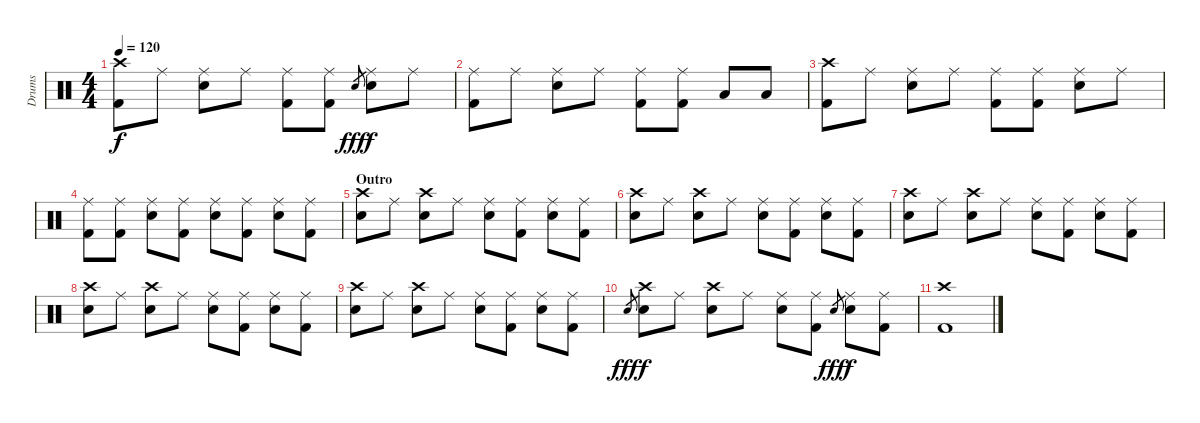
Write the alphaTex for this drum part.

\track ("Drums" "Drums") {instrument percussion}
\staff {score}
\articulation defaults
\ts (4 4)
\tempo 120
\clef neutral
\ks c
("Crash high (hit)" "Kick (hit) 2").8{dy f} "Ride (middle)".8 ("Ride (middle)" "Electric Snare (hit)").8 "Ride (middle)".8 ("Ride (middle)" "Kick (hit) 2").8 ("Ride (middle)" "Kick (hit) 2").8 "Electric Snare (hit)".8{gr dy fff} ("Ride (middle)" "Electric Snare (hit)").8{dy f} "Ride (middle)".8 |
("Ride (middle)" "Kick (hit) 2").8 "Ride (middle)".8 ("Ride (middle)" "Electric Snare (hit)").8 "Ride (middle)".8 ("Ride (middle)" "Kick (hit) 2").8 ("Ride (middle)" "Kick (hit) 2").8 "Low Floor Tom (hit)".8 "Low Floor Tom (hit)".8 |
("Crash high (hit)" "Kick (hit) 2").8 "Ride (middle)".8 ("Ride (middle)" "Electric Snare (hit)").8 "Ride (middle)".8 ("Ride (middle)" "Kick (hit) 2").8 ("Ride (middle)" "Kick (hit) 2").8 ("Ride (middle)" "Electric Snare (hit)").8 "Ride (middle)".8 |
("Ride (middle)" "Kick (hit) 2").8 ("Ride (middle)" "Kick (hit) 2").8 ("Ride (middle)" "Electric Snare (hit)").8 ("Ride (middle)" "Kick (hit) 2").8 ("Ride (middle)" "Electric Snare (hit)").8 ("Ride (middle)" "Kick (hit) 2").8 ("Ride (middle)" "Electric Snare (hit)").8 ("Ride (middle)" "Kick (hit) 2").8 |
\section ("" "Outro")
("Crash high (hit)" "Electric Snare (hit)").8 "Ride (middle)".8 ("Crash high (hit)" "Electric Snare (hit)").8 "Ride (middle)".8 ("Ride (middle)" "Electric Snare (hit)").8 ("Ride (middle)" "Kick (hit) 2").8 ("Ride (middle)" "Electric Snare (hit)").8 ("Ride (middle)" "Kick (hit) 2").8 |
("Crash high (hit)" "Electric Snare (hit)").8 "Ride (middle)".8 ("Crash high (hit)" "Electric Snare (hit)").8 "Ride (middle)".8 ("Ride (middle)" "Electric Snare (hit)").8 ("Ride (middle)" "Kick (hit) 2").8 ("Ride (middle)" "Electric Snare (hit)").8 ("Ride (middle)" "Kick (hit) 2").8 |
("Crash high (hit)" "Electric Snare (hit)").8 "Ride (middle)".8 ("Crash high (hit)" "Electric Snare (hit)").8 "Ride (middle)".8 ("Ride (middle)" "Electric Snare (hit)").8 ("Ride (middle)" "Kick (hit) 2").8 ("Ride (middle)" "Electric Snare (hit)").8 ("Ride (middle)" "Kick (hit) 2").8 |
("Crash high (hit)" "Electric Snare (hit)").8 "Ride (middle)".8 ("Crash high (hit)" "Electric Snare (hit)").8 "Ride (middle)".8 ("Ride (middle)" "Electric Snare (hit)").8 ("Ride (middle)" "Kick (hit) 2").8 ("Ride (middle)" "Electric Snare (hit)").8 ("Ride (middle)" "Kick (hit) 2").8 |
("Crash high (hit)" "Electric Snare (hit)").8 "Ride (middle)".8 ("Crash high (hit)" "Electric Snare (hit)").8 "Ride (middle)".8 ("Ride (middle)" "Electric Snare (hit)").8 ("Ride (middle)" "Kick (hit) 2").8 ("Ride (middle)" "Electric Snare (hit)").8 ("Ride (middle)" "Kick (hit) 2").8 |
"Electric Snare (hit)".8{gr dy fff} ("Crash high (hit)" "Electric Snare (hit)").8{dy f} "Ride (middle)".8 ("Crash high (hit)" "Electric Snare (hit)").8 "Ride (middle)".8 ("Ride (middle)" "Electric Snare (hit)").8 ("Ride (middle)" "Kick (hit) 2").8 "Electric Snare (hit)".8{gr dy fff} ("Ride (middle)" "Electric Snare (hit)").8{dy f} ("Ride (middle)" "Kick (hit) 2").8 |
("Crash high (hit)" "Kick (hit) 2").1
